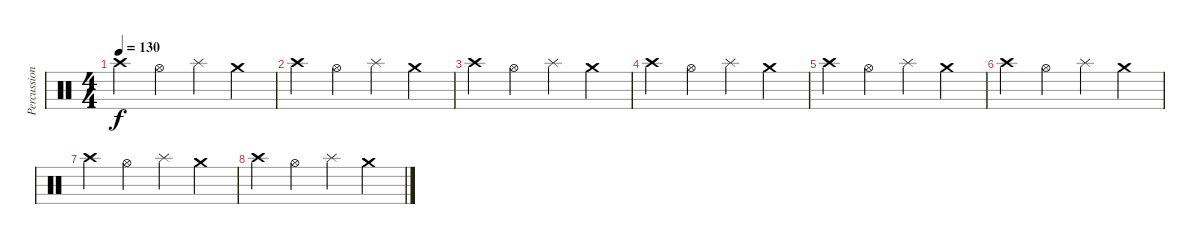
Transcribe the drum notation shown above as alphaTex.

\track ("Percussion" "Percussion") {instrument percussion}
\staff {score}
\articulation defaults
\ts (4 4)
\tempo 130
\clef neutral
\ks c "Crash high (hit)".4{dy f} "Hi-Hat (open)".4 "Splash (hit)".4 "Crash medium (hit)".4
|
"Crash high (hit)".4 "Hi-Hat (open)".4 "Splash (hit)".4 "Crash medium (hit)".4 |
"Crash high (hit)".4 "Hi-Hat (open)".4 "Splash (hit)".4 "Crash medium (hit)".4 |
"Crash high (hit)".4 "Hi-Hat (open)".4 "Splash (hit)".4 "Crash medium (hit)".4 |
"Crash high (hit)".4 "Hi-Hat (open)".4 "Splash (hit)".4 "Crash medium (hit)".4 |
"Crash high (hit)".4 "Hi-Hat (open)".4 "Splash (hit)".4 "Crash medium (hit)".4 |
"Crash high (hit)".4 "Hi-Hat (open)".4 "Splash (hit)".4 "Crash medium (hit)".4 |
"Crash high (hit)".4 "Hi-Hat (open)".4 "Splash (hit)".4 "Crash medium (hit)".4
